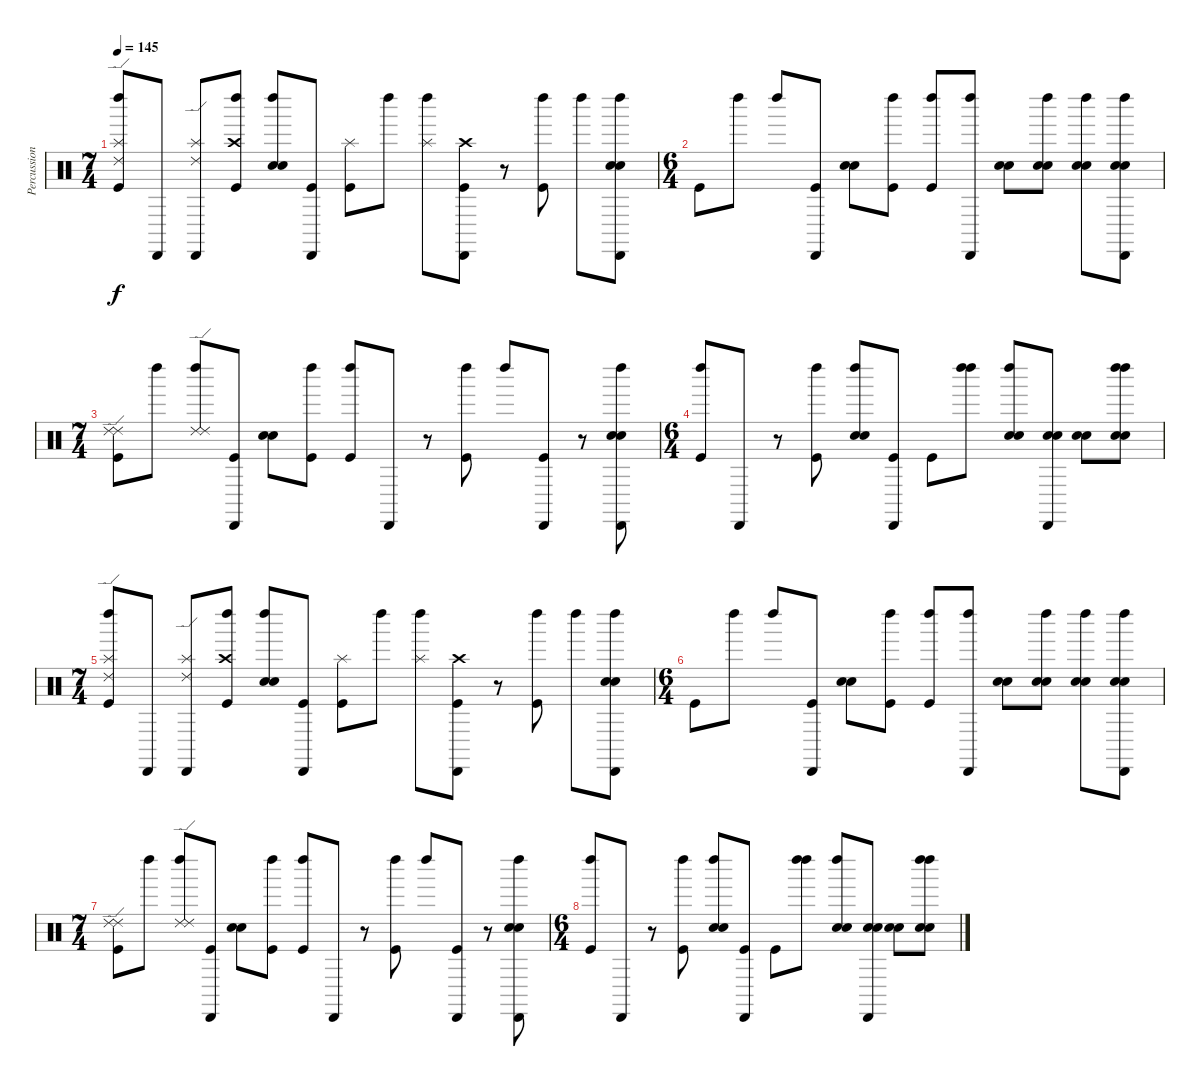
\track ("Percussion" "Percussion") {instrument percussion}
\staff {score}
\articulation defaults
\ts (7 4)
\tempo 145
\clef neutral
\ks c
("Ride (edge) 2" "Left Maraca (hit)" "Splash (hit)" "Kick (hit)").8{dy f} "Cabasa (hit)".8 ("Ride (edge) 2" "Cabasa (hit)" "Splash (hit)").8 ("Left Maraca (hit)" "Crash high (hit)" "Kick (hit)").8 ("Left Maraca (hit)" "Electric Snare (hit)" "Snare (hit) 2").8 ("Cabasa (hit)" "Kick (hit)").8 ("Splash (hit)" "Kick (hit)").8 "Left Maraca (hit)".8 ("Left Maraca (hit)" "Splash (hit)").8 ("Cabasa (hit)" "Crash high (hit)" "Kick (hit)").8 r.8 ("Left Maraca (hit)" "Kick (hit)").8 "Left Maraca (hit)".8 ("Cabasa (hit)" "Left Maraca (hit)" "Electric Snare (hit)" "Snare (hit) 2").8 |
\ts (6 4)
"Kick (hit)".8 "Left Maraca (hit)".8 "Left Maraca (hit)".8 ("Cabasa (hit)" "Kick (hit)").8 ("Electric Snare (hit)" "Snare (hit) 2").8 ("Left Maraca (hit)" "Kick (hit)").8 ("Left Maraca (hit)" "Kick (hit)").8 ("Left Maraca (hit)" "Cabasa (hit)").8 ("Electric Snare (hit)" "Snare (hit) 2").8 ("Left Maraca (hit)" "Electric Snare (hit)" "Snare (hit) 2").8 ("Left Maraca (hit)" "Electric Snare (hit)" "Snare (hit) 2").8 ("Left Maraca (hit)" "Cabasa (hit)" "Electric Snare (hit)" "Snare (hit) 2").8 |
\ts (7 4)
("Ride (edge) 2" "Ride (edge) 2" "Kick (hit)").8 "Left Maraca (hit)".8 ("Ride (edge) 2" "Left Maraca (hit)" "Ride (edge) 2").8 ("Cabasa (hit)" "Kick (hit)").8 ("Electric Snare (hit)" "Snare (hit) 2").8 ("Left Maraca (hit)" "Kick (hit)").8 ("Left Maraca (hit)" "Kick (hit)").8 "Cabasa (hit)".8 r.8 ("Left Maraca (hit)" "Kick (hit)").8 "Left Maraca (hit)".8 ("Cabasa (hit)" "Kick (hit)").8 r.8 ("Cabasa (hit)" "Left Maraca (hit)" "Electric Snare (hit)" "Snare (hit) 2").8 |
\ts (6 4)
("Left Maraca (hit)" "Kick (hit)").8 "Cabasa (hit)".8 r.8 ("Left Maraca (hit)" "Kick (hit)").8 ("Left Maraca (hit)" "Electric Snare (hit)" "Snare (hit) 2").8 ("Cabasa (hit)" "Kick (hit)").8 "Kick (hit)".8 ("Left Maraca (hit)" "Left Maraca (hit)").8 ("Left Maraca (hit)" "Electric Snare (hit)" "Snare (hit) 2").8 ("Cabasa (hit)" "Electric Snare (hit)" "Snare (hit) 2").8 ("Electric Snare (hit)" "Snare (hit) 2").8 ("Left Maraca (hit)" "Left Maraca (hit)" "Electric Snare (hit)" "Snare (hit) 2").8 |
\ts (7 4)
("Ride (edge) 2" "Left Maraca (hit)" "Splash (hit)" "Kick (hit)").8 "Cabasa (hit)".8 ("Ride (edge) 2" "Cabasa (hit)" "Splash (hit)").8 ("Left Maraca (hit)" "Crash high (hit)" "Kick (hit)").8 ("Left Maraca (hit)" "Electric Snare (hit)" "Snare (hit) 2").8 ("Cabasa (hit)" "Kick (hit)").8 ("Splash (hit)" "Kick (hit)").8 "Left Maraca (hit)".8 ("Left Maraca (hit)" "Splash (hit)").8 ("Cabasa (hit)" "Crash high (hit)" "Kick (hit)").8 r.8 ("Left Maraca (hit)" "Kick (hit)").8 "Left Maraca (hit)".8 ("Cabasa (hit)" "Left Maraca (hit)" "Electric Snare (hit)" "Snare (hit) 2").8 |
\ts (6 4)
"Kick (hit)".8 "Left Maraca (hit)".8 "Left Maraca (hit)".8 ("Cabasa (hit)" "Kick (hit)").8 ("Electric Snare (hit)" "Snare (hit) 2").8 ("Left Maraca (hit)" "Kick (hit)").8 ("Left Maraca (hit)" "Kick (hit)").8 ("Left Maraca (hit)" "Cabasa (hit)").8 ("Electric Snare (hit)" "Snare (hit) 2").8 ("Left Maraca (hit)" "Electric Snare (hit)" "Snare (hit) 2").8 ("Left Maraca (hit)" "Electric Snare (hit)" "Snare (hit) 2").8 ("Left Maraca (hit)" "Cabasa (hit)" "Electric Snare (hit)" "Snare (hit) 2").8 |
\ts (7 4)
("Ride (edge) 2" "Ride (edge) 2" "Kick (hit)").8 "Left Maraca (hit)".8 ("Ride (edge) 2" "Left Maraca (hit)" "Ride (edge) 2").8 ("Cabasa (hit)" "Kick (hit)").8 ("Electric Snare (hit)" "Snare (hit) 2").8 ("Left Maraca (hit)" "Kick (hit)").8 ("Left Maraca (hit)" "Kick (hit)").8 "Cabasa (hit)".8 r.8 ("Left Maraca (hit)" "Kick (hit)").8 "Left Maraca (hit)".8 ("Cabasa (hit)" "Kick (hit)").8 r.8 ("Cabasa (hit)" "Left Maraca (hit)" "Electric Snare (hit)" "Snare (hit) 2").8 |
\ts (6 4)
("Left Maraca (hit)" "Kick (hit)").8 "Cabasa (hit)".8 r.8 ("Left Maraca (hit)" "Kick (hit)").8 ("Left Maraca (hit)" "Electric Snare (hit)" "Snare (hit) 2").8 ("Cabasa (hit)" "Kick (hit)").8 "Kick (hit)".8 ("Left Maraca (hit)" "Left Maraca (hit)").8 ("Left Maraca (hit)" "Electric Snare (hit)" "Snare (hit) 2").8 ("Cabasa (hit)" "Electric Snare (hit)" "Snare (hit) 2").8 ("Electric Snare (hit)" "Snare (hit) 2").8 ("Left Maraca (hit)" "Left Maraca (hit)" "Electric Snare (hit)" "Snare (hit) 2").8
